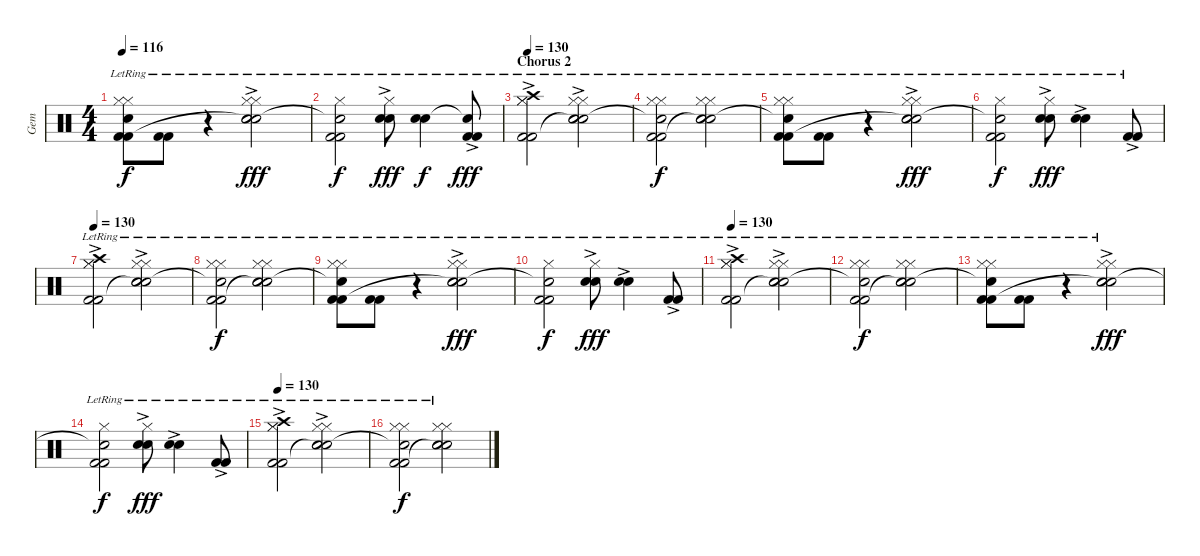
\track ("Gem" "Gem") {instrument percussion}
\staff {score}
\articulation defaults
\ts (4 4)
\tempo 116
\clef neutral
\ks c
("Hi-Hat (closed)"{lr} "Hi-Hat (closed)"{lr} "Kick (hit) 2" "Snare (hit)"{t} "Kick (hit) 2"{lr}).8{dy f} ("Kick (hit) 2" "Kick (hit) 2"{lr}).8 r.4 ("Hi-Hat (closed)"{lr} "Hi-Hat (closed)"{lr} "Snare (hit) 2" "Snare (hit) 2"{ac lr} "Snare (hit)"{t}).2{dy fff} |
("Hi-Hat (closed)"{lr} "Kick (hit) 2" "Snare (hit)"{t} "Kick (hit) 2"{lr}).2{dy f} ("Hi-Hat (closed)"{lr} "Snare (hit) 2" "Snare (hit) 2"{ac lr}).8{dy fff} ("Snare (hit) 2" "Snare (hit) 2"{lr}).4{dy f} ("Kick (hit) 2" "Snare (hit)"{t} "Kick (hit) 2"{ac lr}).8{dy fff} |
\section ("" "Chorus 2")
\tempo 130
("Hi-Hat (closed)"{lr} "Hi-Hat (closed)"{lr} "Kick (hit) 2" "Crash high (hit)"{ac lr} "Kick (hit) 2"{lr}).2 ("Hi-Hat (closed)"{lr} "Hi-Hat (closed)"{lr} "Snare (hit) 2" "Snare (hit) 2"{ac lr} "Snare (hit)"{t}).2 |
("Hi-Hat (closed)"{lr} "Hi-Hat (closed)"{lr} "Kick (hit) 2" "Snare (hit)"{t} "Kick (hit) 2"{lr}).2{dy f} ("Hi-Hat (closed)"{lr} "Hi-Hat (closed)"{lr} "Snare (hit) 2" "Snare (hit) 2"{lr} "Snare (hit)"{t}).2 |
("Hi-Hat (closed)"{lr} "Hi-Hat (closed)"{lr} "Kick (hit) 2" "Snare (hit)"{t} "Kick (hit) 2"{lr}).8 ("Kick (hit) 2" "Kick (hit) 2"{lr}).8 r.4 ("Hi-Hat (closed)"{lr} "Hi-Hat (closed)"{lr} "Snare (hit) 2" "Snare (hit) 2"{ac lr} "Snare (hit)"{t}).2{dy fff} |
("Hi-Hat (closed)"{lr} "Kick (hit) 2" "Snare (hit)"{t} "Kick (hit) 2"{lr}).2{dy f} ("Hi-Hat (closed)"{lr} "Snare (hit) 2" "Snare (hit) 2"{ac lr}).8{dy fff} ("Snare (hit) 2" "Snare (hit) 2"{ac lr}).4 ("Kick (hit) 2" "Kick (hit) 2"{ac lr}).8 |
\tempo 130
("Hi-Hat (closed)"{lr} "Hi-Hat (closed)"{lr} "Kick (hit) 2" "Crash high (hit)"{ac lr} "Kick (hit) 2"{lr}).2 ("Hi-Hat (closed)"{lr} "Hi-Hat (closed)"{lr} "Snare (hit) 2" "Snare (hit) 2"{ac lr} "Snare (hit)"{t}).2 |
("Hi-Hat (closed)"{lr} "Hi-Hat (closed)"{lr} "Kick (hit) 2" "Snare (hit)"{t} "Kick (hit) 2"{lr}).2{dy f} ("Hi-Hat (closed)"{lr} "Hi-Hat (closed)"{lr} "Snare (hit) 2" "Snare (hit) 2"{lr} "Snare (hit)"{t}).2 |
("Hi-Hat (closed)"{lr} "Hi-Hat (closed)"{lr} "Kick (hit) 2" "Snare (hit)"{t} "Kick (hit) 2"{lr}).8 ("Kick (hit) 2" "Kick (hit) 2"{lr}).8 r.4 ("Hi-Hat (closed)"{lr} "Hi-Hat (closed)"{lr} "Snare (hit) 2" "Snare (hit) 2"{ac lr} "Snare (hit)"{t}).2{dy fff} |
("Hi-Hat (closed)"{lr} "Kick (hit) 2" "Snare (hit)"{t} "Kick (hit) 2"{lr}).2{dy f} ("Hi-Hat (closed)"{lr} "Snare (hit) 2" "Snare (hit) 2"{ac lr}).8{dy fff} ("Snare (hit) 2" "Snare (hit) 2"{ac lr}).4 ("Kick (hit) 2" "Kick (hit) 2"{ac lr}).8 |
\tempo 130
("Hi-Hat (closed)"{lr} "Hi-Hat (closed)"{lr} "Kick (hit) 2" "Crash high (hit)"{ac lr} "Kick (hit) 2"{lr}).2 ("Hi-Hat (closed)"{lr} "Hi-Hat (closed)"{lr} "Snare (hit) 2" "Snare (hit) 2"{ac lr} "Snare (hit)"{t}).2 |
("Hi-Hat (closed)"{lr} "Hi-Hat (closed)"{lr} "Kick (hit) 2" "Snare (hit)"{t} "Kick (hit) 2"{lr}).2{dy f} ("Hi-Hat (closed)"{lr} "Hi-Hat (closed)"{lr} "Snare (hit) 2" "Snare (hit) 2"{lr} "Snare (hit)"{t}).2 |
("Hi-Hat (closed)"{lr} "Hi-Hat (closed)"{lr} "Kick (hit) 2" "Snare (hit)"{t} "Kick (hit) 2"{lr}).8 ("Kick (hit) 2" "Kick (hit) 2"{lr}).8 r.4 ("Hi-Hat (closed)"{lr} "Hi-Hat (closed)"{lr} "Snare (hit) 2" "Snare (hit) 2"{ac lr} "Snare (hit)"{t}).2{dy fff} |
("Hi-Hat (closed)"{lr} "Kick (hit) 2" "Snare (hit)"{t} "Kick (hit) 2"{lr}).2{dy f} ("Hi-Hat (closed)"{lr} "Snare (hit) 2" "Snare (hit) 2"{ac lr}).8{dy fff} ("Snare (hit) 2" "Snare (hit) 2"{ac lr}).4 ("Kick (hit) 2" "Kick (hit) 2"{ac lr}).8 |
\tempo 130
("Hi-Hat (closed)"{lr} "Hi-Hat (closed)"{lr} "Kick (hit) 2" "Crash high (hit)"{ac lr} "Kick (hit) 2"{lr}).2 ("Hi-Hat (closed)"{lr} "Hi-Hat (closed)"{lr} "Snare (hit) 2" "Snare (hit) 2"{ac lr} "Snare (hit)"{t}).2 |
("Hi-Hat (closed)"{lr} "Hi-Hat (closed)"{lr} "Kick (hit) 2" "Snare (hit)"{t} "Kick (hit) 2"{lr}).2{dy f} ("Hi-Hat (closed)"{lr} "Hi-Hat (closed)"{lr} "Snare (hit) 2" "Snare (hit) 2"{lr} "Snare (hit)"{t}).2
